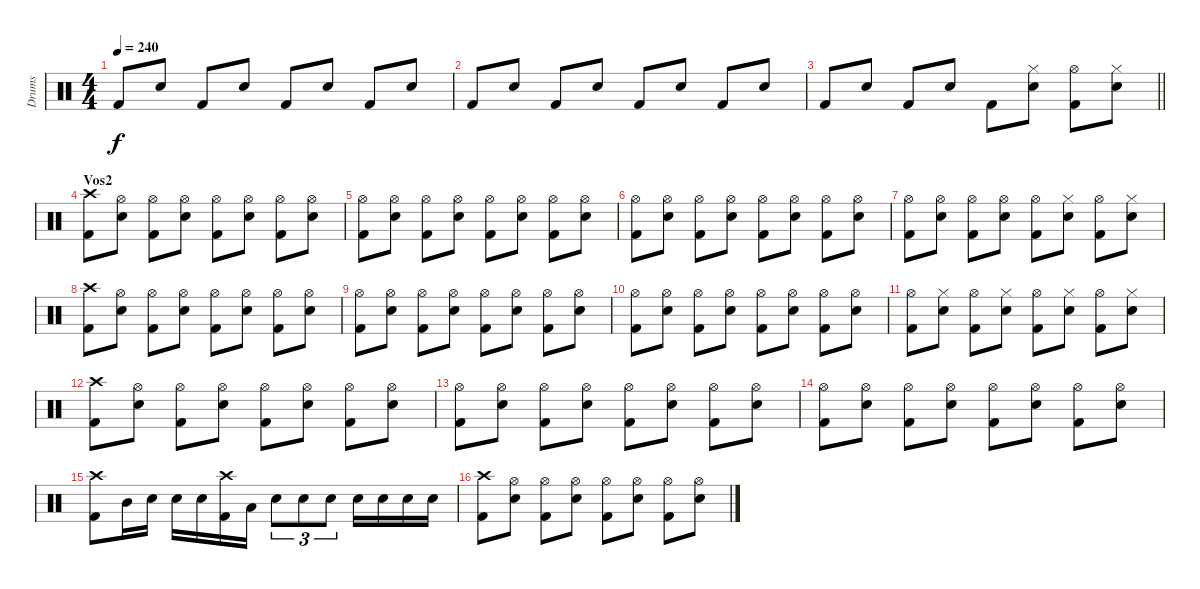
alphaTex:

\track ("Drums" "Drums") {instrument percussion}
\staff {score}
\articulation defaults
\ts (4 4)
\tempo 240
\clef neutral
\ks c "Kick (hit) 2".8{dy f} "Snare (hit) 2".8 "Kick (hit) 2".8 "Snare (hit) 2".8 "Kick (hit) 2".8 "Snare (hit) 2".8 "Kick (hit) 2".8 "Snare (hit) 2".8
|
"Kick (hit) 2".8 "Snare (hit) 2".8 "Kick (hit) 2".8 "Snare (hit) 2".8 "Kick (hit) 2".8 "Snare (hit) 2".8 "Kick (hit) 2".8 "Snare (hit) 2".8 |
\barLineRight lightlight "Kick (hit) 2".8 "Snare (hit) 2".8 "Kick (hit) 2".8 "Snare (hit) 2".8 "Kick (hit) 2".8
("Hi-Hat (closed)" "Snare (hit) 2").8 ("Hi-Hat (open)" "Kick (hit) 2").8 ("Hi-Hat (closed)" "Snare (hit) 2").8 |
\section ("" "Vos2")
("Crash high (hit)" "Kick (hit) 2").8 ("Hi-Hat (open)" "Snare (hit) 2").8 ("Hi-Hat (open)" "Kick (hit) 2").8 ("Hi-Hat (open)" "Snare (hit) 2").8 ("Hi-Hat (open)" "Kick (hit) 2").8 ("Hi-Hat (open)" "Snare (hit) 2").8 ("Hi-Hat (open)" "Kick (hit) 2").8 ("Hi-Hat (open)" "Snare (hit) 2").8 |
("Hi-Hat (open)" "Kick (hit) 2").8 ("Hi-Hat (open)" "Snare (hit) 2").8 ("Hi-Hat (open)" "Kick (hit) 2").8 ("Hi-Hat (open)" "Snare (hit) 2").8 ("Hi-Hat (open)" "Kick (hit) 2").8 ("Hi-Hat (open)" "Snare (hit) 2").8 ("Hi-Hat (open)" "Kick (hit) 2").8 ("Hi-Hat (open)" "Snare (hit) 2").8 |
("Hi-Hat (open)" "Kick (hit) 2").8 ("Hi-Hat (open)" "Snare (hit) 2").8 ("Hi-Hat (open)" "Kick (hit) 2").8 ("Hi-Hat (open)" "Snare (hit) 2").8 ("Hi-Hat (open)" "Kick (hit) 2").8 ("Hi-Hat (open)" "Snare (hit) 2").8 ("Hi-Hat (open)" "Kick (hit) 2").8 ("Hi-Hat (open)" "Snare (hit) 2").8 |
("Hi-Hat (open)" "Kick (hit) 2").8 ("Hi-Hat (open)" "Snare (hit) 2").8 ("Hi-Hat (open)" "Kick (hit) 2").8 ("Hi-Hat (open)" "Snare (hit) 2").8 ("Hi-Hat (open)" "Kick (hit) 2").8 ("Hi-Hat (closed)" "Snare (hit) 2").8 ("Hi-Hat (open)" "Kick (hit) 2").8 ("Hi-Hat (closed)" "Snare (hit) 2").8 |
("Crash high (hit)" "Kick (hit) 2").8 ("Hi-Hat (open)" "Snare (hit) 2").8 ("Hi-Hat (open)" "Kick (hit) 2").8 ("Hi-Hat (open)" "Snare (hit) 2").8 ("Hi-Hat (open)" "Kick (hit) 2").8 ("Hi-Hat (open)" "Snare (hit) 2").8 ("Hi-Hat (open)" "Kick (hit) 2").8 ("Hi-Hat (open)" "Snare (hit) 2").8 |
("Hi-Hat (open)" "Kick (hit) 2").8 ("Hi-Hat (open)" "Snare (hit) 2").8 ("Hi-Hat (open)" "Kick (hit) 2").8 ("Hi-Hat (open)" "Snare (hit) 2").8 ("Hi-Hat (open)" "Kick (hit) 2").8 ("Hi-Hat (open)" "Snare (hit) 2").8 ("Hi-Hat (open)" "Kick (hit) 2").8 ("Hi-Hat (open)" "Snare (hit) 2").8 |
("Hi-Hat (open)" "Kick (hit) 2").8 ("Hi-Hat (open)" "Snare (hit) 2").8 ("Hi-Hat (open)" "Kick (hit) 2").8 ("Hi-Hat (open)" "Snare (hit) 2").8 ("Hi-Hat (open)" "Kick (hit) 2").8 ("Hi-Hat (open)" "Snare (hit) 2").8 ("Hi-Hat (open)" "Kick (hit) 2").8 ("Hi-Hat (open)" "Snare (hit) 2").8 |
("Hi-Hat (open)" "Kick (hit) 2").8 ("Hi-Hat (closed)" "Snare (hit) 2").8 ("Hi-Hat (open)" "Kick (hit) 2").8 ("Hi-Hat (closed)" "Snare (hit) 2").8 ("Hi-Hat (open)" "Kick (hit) 2").8 ("Hi-Hat (closed)" "Snare (hit) 2").8 ("Hi-Hat (open)" "Kick (hit) 2").8 ("Hi-Hat (closed)" "Snare (hit) 2").8 |
("Crash high (hit)" "Kick (hit) 2").8 ("Hi-Hat (open)" "Snare (hit) 2").8 ("Hi-Hat (open)" "Kick (hit) 2").8 ("Hi-Hat (open)" "Snare (hit) 2").8 ("Hi-Hat (open)" "Kick (hit) 2").8 ("Hi-Hat (open)" "Snare (hit) 2").8 ("Hi-Hat (open)" "Kick (hit) 2").8 ("Hi-Hat (open)" "Snare (hit) 2").8 |
("Hi-Hat (open)" "Kick (hit) 2").8 ("Hi-Hat (open)" "Snare (hit) 2").8 ("Hi-Hat (open)" "Kick (hit) 2").8 ("Hi-Hat (open)" "Snare (hit) 2").8 ("Hi-Hat (open)" "Kick (hit) 2").8 ("Hi-Hat (open)" "Snare (hit) 2").8 ("Hi-Hat (open)" "Kick (hit) 2").8 ("Hi-Hat (open)" "Snare (hit) 2").8 |
("Hi-Hat (open)" "Kick (hit) 2").8 ("Hi-Hat (open)" "Snare (hit) 2").8 ("Hi-Hat (open)" "Kick (hit) 2").8 ("Hi-Hat (open)" "Snare (hit) 2").8 ("Hi-Hat (open)" "Kick (hit) 2").8 ("Hi-Hat (open)" "Snare (hit) 2").8 ("Hi-Hat (open)" "Kick (hit) 2").8 ("Hi-Hat (open)" "Snare (hit) 2").8 |
("Crash high (hit)" "Kick (hit) 2").8 "Mid Tom (hit)".16 "Snare (hit) 2".16 "Snare (hit) 2".16 "Snare (hit) 2".16 ("Crash high (hit)" "Kick (hit) 2").16 "Low Tom (hit)".16 "Snare (hit) 2".8{tu (3 2)} "Snare (hit) 2".8{tu (3 2)} "Snare (hit) 2".8{tu (3 2)} "Snare (hit) 2".16 "Snare (hit) 2".16 "Snare (hit) 2".16 "Snare (hit) 2".16 |
("Crash high (hit)" "Kick (hit) 2").8 ("Hi-Hat (open)" "Snare (hit) 2").8 ("Hi-Hat (open)" "Kick (hit) 2").8 ("Hi-Hat (open)" "Snare (hit) 2").8 ("Hi-Hat (open)" "Kick (hit) 2").8 ("Hi-Hat (open)" "Snare (hit) 2").8 ("Hi-Hat (open)" "Kick (hit) 2").8 ("Hi-Hat (open)" "Snare (hit) 2").8
